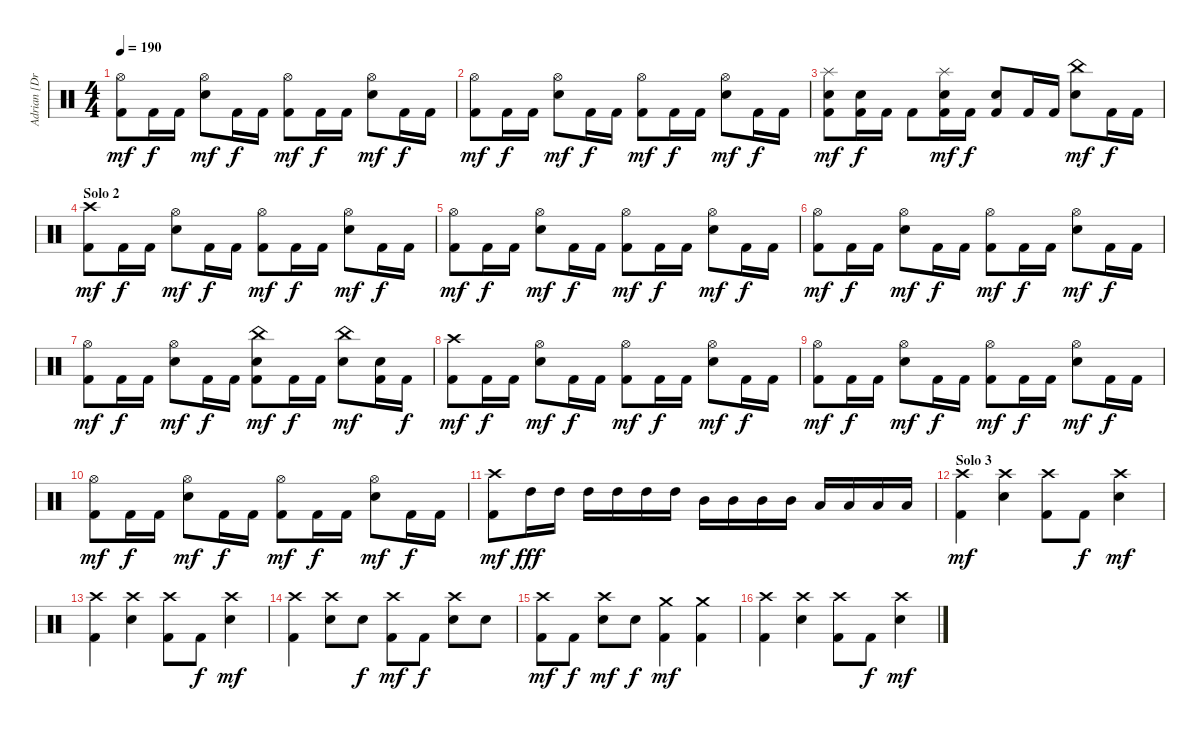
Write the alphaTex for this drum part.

\track ("Adrian [Drums]" "Adrian [Dr") {instrument percussion}
\staff {score}
\articulation defaults
\ts (4 4)
\tempo 190
\clef neutral
\ks c
("Hi-Hat (open)" "Kick (hit) 2").8{dy mf} "Kick (hit) 2".16{dy f} "Kick (hit) 2".16 ("Hi-Hat (open)" "Electric Snare (hit)").8{dy mf} "Kick (hit) 2".16{dy f} "Kick (hit) 2".16 ("Hi-Hat (open)" "Kick (hit) 2").8{dy mf} "Kick (hit) 2".16{dy f} "Kick (hit) 2".16 ("Hi-Hat (open)" "Electric Snare (hit)").8{dy mf} "Kick (hit) 2".16{dy f} "Kick (hit) 2".16 |
("Hi-Hat (open)" "Kick (hit) 2").8{dy mf} "Kick (hit) 2".16{dy f} "Kick (hit) 2".16 ("Hi-Hat (open)" "Electric Snare (hit)").8{dy mf} "Kick (hit) 2".16{dy f} "Kick (hit) 2".16 ("Hi-Hat (open)" "Kick (hit) 2").8{dy mf} "Kick (hit) 2".16{dy f} "Kick (hit) 2".16 ("Hi-Hat (open)" "Electric Snare (hit)").8{dy mf} "Kick (hit) 2".16{dy f} "Kick (hit) 2".16 |
("Splash (hit)" "Electric Snare (hit)" "Kick (hit) 2").8{dy mf} ("Electric Snare (hit)" "Kick (hit) 2").16{dy f} "Kick (hit) 2".16 "Kick (hit) 2".8 ("Splash (hit)" "Electric Snare (hit)" "Kick (hit) 2").16{dy mf} "Kick (hit) 2".16{dy f} ("Electric Snare (hit)" "Kick (hit) 2").8 "Kick (hit) 2".16 "Kick (hit) 2".16 ("China (hit)" "Electric Snare (hit)").8{dy mf} "Kick (hit) 2".16{dy f} "Kick (hit) 2".16 |
\section ("" "Solo 2")
("Crash high (hit)" "Kick (hit) 2").8{dy mf} "Kick (hit) 2".16{dy f} "Kick (hit) 2".16 ("Hi-Hat (open)" "Electric Snare (hit)").8{dy mf} "Kick (hit) 2".16{dy f} "Kick (hit) 2".16 ("Hi-Hat (open)" "Kick (hit) 2").8{dy mf} "Kick (hit) 2".16{dy f} "Kick (hit) 2".16 ("Hi-Hat (open)" "Electric Snare (hit)").8{dy mf} "Kick (hit) 2".16{dy f} "Kick (hit) 2".16 |
("Hi-Hat (open)" "Kick (hit) 2").8{dy mf} "Kick (hit) 2".16{dy f} "Kick (hit) 2".16 ("Hi-Hat (open)" "Electric Snare (hit)").8{dy mf} "Kick (hit) 2".16{dy f} "Kick (hit) 2".16 ("Hi-Hat (open)" "Kick (hit) 2").8{dy mf} "Kick (hit) 2".16{dy f} "Kick (hit) 2".16 ("Hi-Hat (open)" "Electric Snare (hit)").8{dy mf} "Kick (hit) 2".16{dy f} "Kick (hit) 2".16 |
("Hi-Hat (open)" "Kick (hit) 2").8{dy mf} "Kick (hit) 2".16{dy f} "Kick (hit) 2".16 ("Hi-Hat (open)" "Electric Snare (hit)").8{dy mf} "Kick (hit) 2".16{dy f} "Kick (hit) 2".16 ("Hi-Hat (open)" "Kick (hit) 2").8{dy mf} "Kick (hit) 2".16{dy f} "Kick (hit) 2".16 ("Hi-Hat (open)" "Electric Snare (hit)").8{dy mf} "Kick (hit) 2".16{dy f} "Kick (hit) 2".16 |
("Hi-Hat (open)" "Kick (hit) 2").8{dy mf} "Kick (hit) 2".16{dy f} "Kick (hit) 2".16 ("Hi-Hat (open)" "Electric Snare (hit)").8{dy mf} "Kick (hit) 2".16{dy f} "Kick (hit) 2".16 ("China (hit)" "Electric Snare (hit)" "Kick (hit) 2").8{dy mf} "Kick (hit) 2".16{dy f} "Kick (hit) 2".16 ("China (hit)" "Electric Snare (hit)").8{dy mf} ("Electric Snare (hit)" "Kick (hit) 2").16 "Kick (hit) 2".16{dy f} |
("Crash high (hit)" "Kick (hit) 2").8{dy mf} "Kick (hit) 2".16{dy f} "Kick (hit) 2".16 ("Hi-Hat (open)" "Electric Snare (hit)").8{dy mf} "Kick (hit) 2".16{dy f} "Kick (hit) 2".16 ("Hi-Hat (open)" "Kick (hit) 2").8{dy mf} "Kick (hit) 2".16{dy f} "Kick (hit) 2".16 ("Hi-Hat (open)" "Electric Snare (hit)").8{dy mf} "Kick (hit) 2".16{dy f} "Kick (hit) 2".16 |
("Hi-Hat (open)" "Kick (hit) 2").8{dy mf} "Kick (hit) 2".16{dy f} "Kick (hit) 2".16 ("Hi-Hat (open)" "Electric Snare (hit)").8{dy mf} "Kick (hit) 2".16{dy f} "Kick (hit) 2".16 ("Hi-Hat (open)" "Kick (hit) 2").8{dy mf} "Kick (hit) 2".16{dy f} "Kick (hit) 2".16 ("Hi-Hat (open)" "Electric Snare (hit)").8{dy mf} "Kick (hit) 2".16{dy f} "Kick (hit) 2".16 |
("Hi-Hat (open)" "Kick (hit) 2").8{dy mf} "Kick (hit) 2".16{dy f} "Kick (hit) 2".16 ("Hi-Hat (open)" "Electric Snare (hit)").8{dy mf} "Kick (hit) 2".16{dy f} "Kick (hit) 2".16 ("Hi-Hat (open)" "Kick (hit) 2").8{dy mf} "Kick (hit) 2".16{dy f} "Kick (hit) 2".16 ("Hi-Hat (open)" "Electric Snare (hit)").8{dy mf} "Kick (hit) 2".16{dy f} "Kick (hit) 2".16 |
("Crash high (hit)" "Kick (hit) 2").8{dy mf} "High Tom (hit)".16{dy fff} "High Tom (hit)".16 "High Tom (hit)".16 "High Tom (hit)".16 "High Tom (hit)".16 "High Tom (hit)".16 "Mid Tom (hit)".16 "Mid Tom (hit)".16 "Mid Tom (hit)".16 "Mid Tom (hit)".16 "Low Tom (hit)".16 "Low Tom (hit)".16 "Low Tom (hit)".16 "Low Tom (hit)".16 |
\section ("" "Solo 3")
("Crash high (hit)" "Kick (hit) 2").4{dy mf} ("Crash high (hit)" "Electric Snare (hit)").4 ("Crash high (hit)" "Kick (hit) 2").8 "Kick (hit) 2".8{dy f} ("Crash high (hit)" "Electric Snare (hit)").4{dy mf} |
("Crash high (hit)" "Kick (hit) 2").4 ("Crash high (hit)" "Electric Snare (hit)").4 ("Crash high (hit)" "Kick (hit) 2").8 "Kick (hit) 2".8{dy f} ("Crash high (hit)" "Electric Snare (hit)").4{dy mf} |
("Crash high (hit)" "Kick (hit) 2").4 ("Crash high (hit)" "Electric Snare (hit)").8 "Electric Snare (hit)".8{dy f} ("Crash high (hit)" "Kick (hit) 2").8{dy mf} "Kick (hit) 2".8{dy f} ("Crash high (hit)" "Electric Snare (hit)").8 "Electric Snare (hit)".8 |
("Crash high (hit)" "Kick (hit) 2").8{dy mf} "Kick (hit) 2".8{dy f} ("Crash high (hit)" "Electric Snare (hit)").8{dy mf} "Electric Snare (hit)".8{dy f} ("Crash medium (hit)" "Kick (hit) 2").4{dy mf} ("Crash medium (hit)" "Kick (hit) 2").4 |
("Crash high (hit)" "Kick (hit) 2").4 ("Crash high (hit)" "Electric Snare (hit)").4 ("Crash high (hit)" "Kick (hit) 2").8 "Kick (hit) 2".8{dy f} ("Crash high (hit)" "Electric Snare (hit)").4{dy mf}
